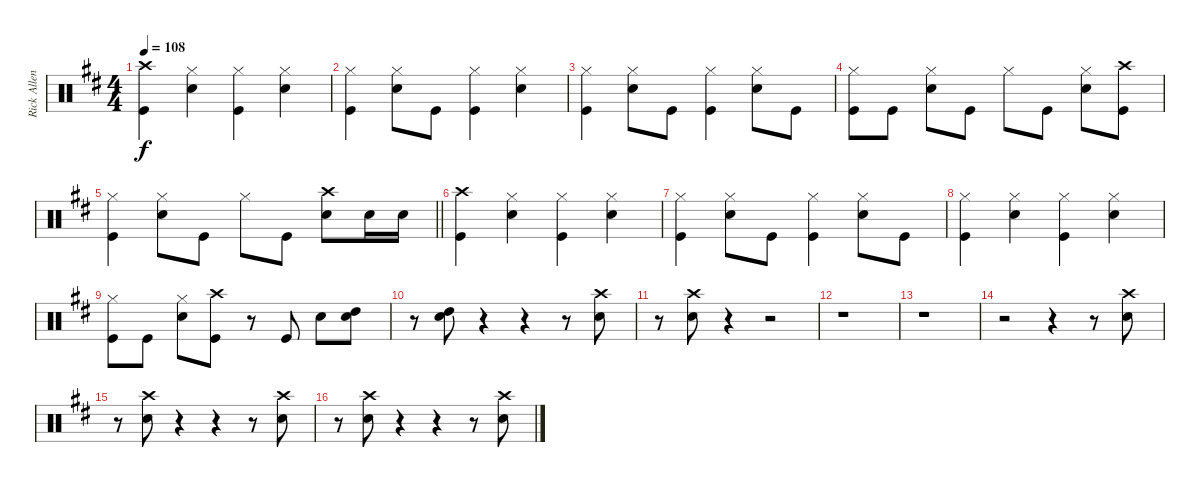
\track ("Rick Allen" "Rick Allen") {instrument percussion}
\staff {score}
\articulation defaults
\ts (4 4)
\tempo 108
\clef neutral
\ks d
("Crash high (hit)" "Kick (hit)").4{dy f} ("Hi-Hat (closed)" "Snare (hit) 2").4 ("Hi-Hat (closed)" "Kick (hit)").4 ("Hi-Hat (closed)" "Snare (hit) 2").4 |
("Hi-Hat (closed)" "Kick (hit)").4 ("Hi-Hat (closed)" "Snare (hit) 2").8 "Kick (hit)".8 ("Hi-Hat (closed)" "Kick (hit)").4 ("Hi-Hat (closed)" "Snare (hit) 2").4 |
("Hi-Hat (closed)" "Kick (hit)").4 ("Hi-Hat (closed)" "Snare (hit) 2").8 "Kick (hit)".8 ("Hi-Hat (closed)" "Kick (hit)").4 ("Hi-Hat (closed)" "Snare (hit) 2").8 "Kick (hit)".8 |
("Hi-Hat (closed)" "Kick (hit)").8 "Kick (hit)".8 ("Hi-Hat (closed)" "Snare (hit) 2").8 "Kick (hit)".8 "Hi-Hat (closed)".8 "Kick (hit)".8 ("Hi-Hat (closed)" "Snare (hit) 2").8 ("Crash high (hit)" "Kick (hit)").8 |
\barLineRight lightlight
("Hi-Hat (closed)" "Kick (hit)").4 ("Hi-Hat (closed)" "Snare (hit) 2").8 "Kick (hit)".8 "Hi-Hat (closed)".8 "Kick (hit)".8 ("Crash high (hit)" "Snare (hit) 2").8 "Snare (hit) 2".16 "Snare (hit) 2".16 |
("Crash high (hit)" "Kick (hit)").4 ("Hi-Hat (closed)" "Snare (hit) 2").4 ("Hi-Hat (closed)" "Kick (hit)").4 ("Hi-Hat (closed)" "Snare (hit) 2").4 |
("Hi-Hat (closed)" "Kick (hit)").4 ("Hi-Hat (closed)" "Snare (hit) 2").8 "Kick (hit)".8 ("Hi-Hat (closed)" "Kick (hit)").4 ("Hi-Hat (closed)" "Snare (hit) 2").8 "Kick (hit)".8 |
("Hi-Hat (closed)" "Kick (hit)").4 ("Hi-Hat (closed)" "Snare (hit) 2").4 ("Hi-Hat (closed)" "Kick (hit)").4 ("Hi-Hat (closed)" "Snare (hit) 2").4 |
("Hi-Hat (closed)" "Kick (hit)").8 "Kick (hit)".8 ("Hi-Hat (closed)" "Snare (hit) 2").8 ("Crash high (hit)" "Kick (hit)").8 r.8 "Kick (hit)".8 "Snare (hit) 2".8 ("High Tom (hit)" "Snare (hit) 2").8 |
r.8 ("High Tom (hit)" "Snare (hit) 2").8 r.4 r.4 r.8 ("Crash high (hit)" "Snare (hit) 2").8 |
r.8 ("Crash high (hit)" "Snare (hit) 2").8 r.4 r.2 |
r.1 |
r.1 |
r.2 r.4 r.8 ("Crash high (hit)" "Snare (hit) 2").8 |
r.8 ("Crash high (hit)" "Snare (hit) 2").8 r.4 r.4 r.8 ("Crash high (hit)" "Snare (hit) 2").8 |
r.8 ("Crash high (hit)" "Snare (hit) 2").8 r.4 r.4 r.8 ("Crash high (hit)" "Snare (hit) 2").8
